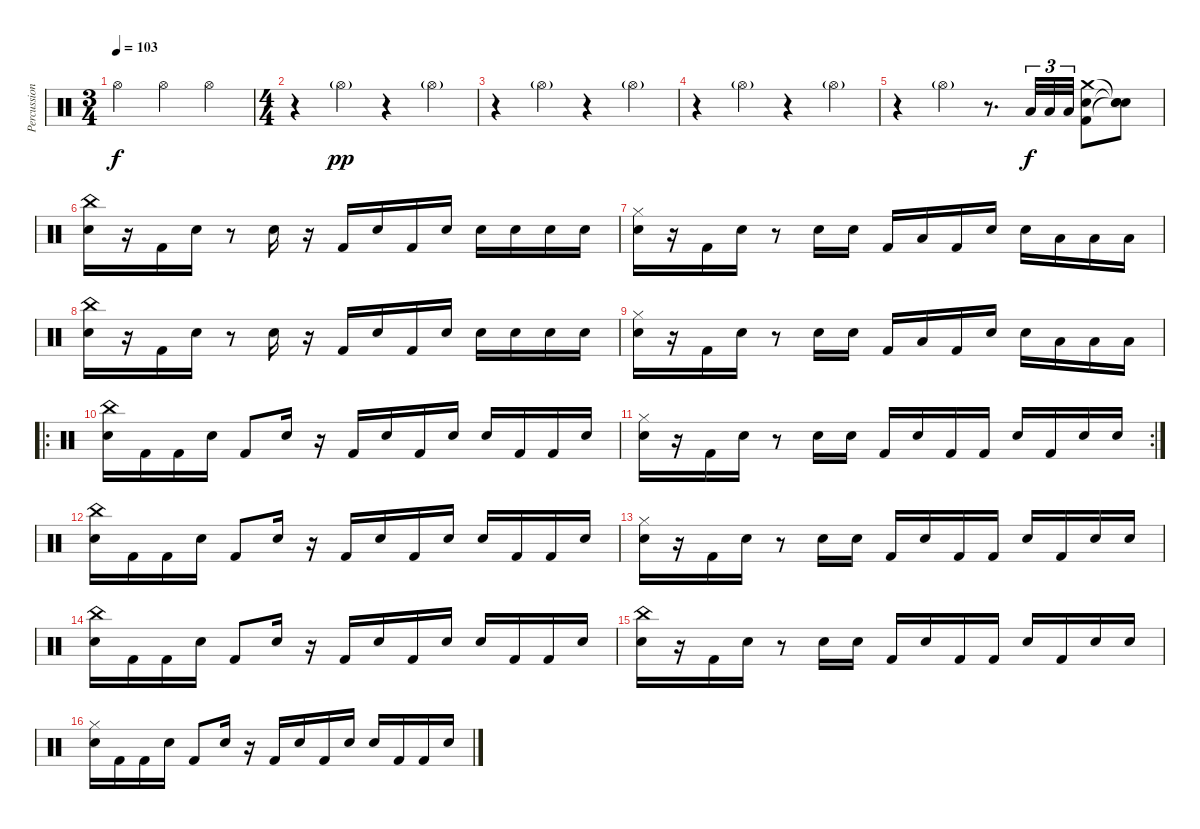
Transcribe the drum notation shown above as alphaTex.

\track ("Percussion" "Percussion") {instrument percussion}
\staff {score}
\articulation defaults
\ts (3 4)
\tempo 103
\clef neutral
\ks c "Hi-Hat (open)".4{dy f} "Hi-Hat (open)".4 "Hi-Hat (open)".4
|
\ts (4 4)
r.4 "Hi-Hat (open)"{g}.4{dy pp} r.4 "Hi-Hat (open)"{g}.4 |
r.4 "Hi-Hat (open)"{g}.4 r.4 "Hi-Hat (open)"{g}.4 |
r.4 "Hi-Hat (open)"{g}.4 r.4 "Hi-Hat (open)"{g}.4 |
r.4 "Hi-Hat (open)"{g}.4 r.8{d} "Low Tom (hit)".32{tu (3 2) dy f} "Low Tom (hit)".32{tu (3 2)} "Low Tom (hit)".32{tu (3 2)} ("Crash medium (hit)" "Electric Snare (hit)" "Kick (hit) 2").8 ("Snare (hit)"{t} "Snare (hit)"{t} "Snare (hit)"{t}).8 |
("China (hit)" "Snare (hit) 2").16 r.16 "Kick (hit) 2".16 "Snare (hit) 2".16 r.8 "Snare (hit) 2".16 r.16 "Kick (hit) 2".16 "Electric Snare (hit)".16 "Kick (hit) 2".16 "Snare (hit) 2".16 "Snare (hit) 2".16 "Electric Snare (hit)".16 "Electric Snare (hit)".16 "Electric Snare (hit)".16 |
("Hi-Hat (closed)" "Snare (hit) 2").16 r.16 "Kick (hit) 2".16 "Electric Snare (hit)".16 r.8 "Snare (hit) 2".16 "Snare (hit) 2".16 "Kick (hit) 2".16 "Low Tom (hit)".16 "Kick (hit) 2".16 "Snare (hit) 2".16 "Snare (hit) 2".16 "Low Tom (hit)".16 "Low Tom (hit)".16 "Low Tom (hit)".16 |
("China (hit)" "Snare (hit) 2").16 r.16 "Kick (hit) 2".16 "Snare (hit) 2".16 r.8 "Snare (hit) 2".16 r.16 "Kick (hit) 2".16 "Electric Snare (hit)".16 "Kick (hit) 2".16 "Snare (hit) 2".16 "Snare (hit) 2".16 "Electric Snare (hit)".16 "Electric Snare (hit)".16 "Electric Snare (hit)".16 |
("Hi-Hat (closed)" "Snare (hit) 2").16 r.16 "Kick (hit) 2".16 "Electric Snare (hit)".16 r.8 "Snare (hit) 2".16 "Snare (hit) 2".16 "Kick (hit) 2".16 "Low Tom (hit)".16 "Kick (hit) 2".16 "Snare (hit) 2".16 "Snare (hit) 2".16 "Low Tom (hit)".16 "Low Tom (hit)".16 "Low Tom (hit)".16 |
\ro
("China (hit)" "Snare (hit) 2").16 "Kick (hit) 2".16 "Kick (hit) 2".16 "Snare (hit) 2".16 "Kick (hit) 2".8 "Snare (hit) 2".16 r.16 "Kick (hit) 2".16 "Electric Snare (hit)".16 "Kick (hit) 2".16 "Snare (hit) 2".16 "Snare (hit) 2".16 "Kick (hit) 2".16 "Kick (hit) 2".16 "Electric Snare (hit)".16 |
\rc 2
("Hi-Hat (closed)" "Snare (hit) 2").16 r.16 "Kick (hit) 2".16 "Electric Snare (hit)".16 r.8 "Snare (hit) 2".16 "Snare (hit) 2".16 "Kick (hit) 2".16 "Electric Snare (hit)".16 "Kick (hit) 2".16 "Kick (hit) 2".16 "Electric Snare (hit)".16 "Kick (hit) 2".16 "Electric Snare (hit)".16 "Electric Snare (hit)".16 |
("China (hit)" "Snare (hit) 2").16 "Kick (hit) 2".16 "Kick (hit) 2".16 "Snare (hit) 2".16 "Kick (hit) 2".8 "Snare (hit) 2".16 r.16 "Kick (hit) 2".16 "Electric Snare (hit)".16 "Kick (hit) 2".16 "Snare (hit) 2".16 "Snare (hit) 2".16 "Kick (hit) 2".16 "Kick (hit) 2".16 "Electric Snare (hit)".16 |
("Hi-Hat (closed)" "Snare (hit) 2").16 r.16 "Kick (hit) 2".16 "Electric Snare (hit)".16 r.8 "Snare (hit) 2".16 "Snare (hit) 2".16 "Kick (hit) 2".16 "Electric Snare (hit)".16 "Kick (hit) 2".16 "Kick (hit) 2".16 "Electric Snare (hit)".16 "Kick (hit) 2".16 "Electric Snare (hit)".16 "Electric Snare (hit)".16 |
("China (hit)" "Snare (hit) 2").16 "Kick (hit) 2".16 "Kick (hit) 2".16 "Snare (hit) 2".16 "Kick (hit) 2".8 "Snare (hit) 2".16 r.16 "Kick (hit) 2".16 "Electric Snare (hit)".16 "Kick (hit) 2".16 "Snare (hit) 2".16 "Snare (hit) 2".16 "Kick (hit) 2".16 "Kick (hit) 2".16 "Electric Snare (hit)".16 |
("China (hit)" "Snare (hit) 2").16 r.16 "Kick (hit) 2".16 "Electric Snare (hit)".16 r.8 "Snare (hit) 2".16 "Snare (hit) 2".16 "Kick (hit) 2".16 "Electric Snare (hit)".16 "Kick (hit) 2".16 "Kick (hit) 2".16 "Electric Snare (hit)".16 "Kick (hit) 2".16 "Electric Snare (hit)".16 "Electric Snare (hit)".16 |
("Hi-Hat (closed)" "Snare (hit) 2").16 "Kick (hit) 2".16 "Kick (hit) 2".16 "Snare (hit) 2".16 "Kick (hit) 2".8 "Snare (hit) 2".16 r.16 "Kick (hit) 2".16 "Electric Snare (hit)".16 "Kick (hit) 2".16 "Snare (hit) 2".16 "Snare (hit) 2".16 "Kick (hit) 2".16 "Kick (hit) 2".16 "Electric Snare (hit)".16
